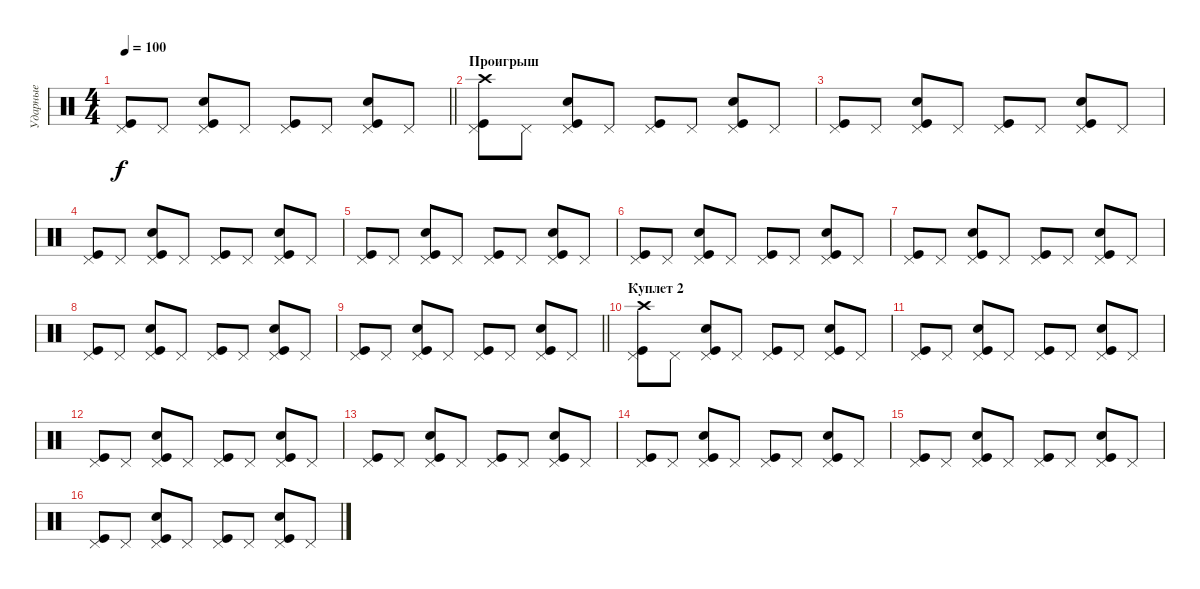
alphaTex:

\track ("Ударные" "Ударные") {instrument percussion}
\staff {score}
\articulation defaults
\ts (4 4)
\tempo 100
\clef neutral
\barLineRight lightlight
\ks c
("Pedal Hi-Hat (hit)" "Kick (hit)").8{dy f} "Pedal Hi-Hat (hit)".8 ("Pedal Hi-Hat (hit)" "Kick (hit)" "Snare (hit) 2").8 "Pedal Hi-Hat (hit)".8 ("Pedal Hi-Hat (hit)" "Kick (hit)").8 "Pedal Hi-Hat (hit)".8 ("Pedal Hi-Hat (hit)" "Kick (hit)" "Snare (hit) 2").8 "Pedal Hi-Hat (hit)".8 |
\section ("" "Проигрыш")
("Pedal Hi-Hat (hit)" "Kick (hit)" "Crash high (hit)").8 "Pedal Hi-Hat (hit)".8 ("Pedal Hi-Hat (hit)" "Kick (hit)" "Snare (hit) 2").8 "Pedal Hi-Hat (hit)".8 ("Pedal Hi-Hat (hit)" "Kick (hit)").8 "Pedal Hi-Hat (hit)".8 ("Pedal Hi-Hat (hit)" "Kick (hit)" "Snare (hit) 2").8 "Pedal Hi-Hat (hit)".8 |
("Pedal Hi-Hat (hit)" "Kick (hit)").8 "Pedal Hi-Hat (hit)".8 ("Pedal Hi-Hat (hit)" "Kick (hit)" "Snare (hit) 2").8 "Pedal Hi-Hat (hit)".8 ("Pedal Hi-Hat (hit)" "Kick (hit)").8 "Pedal Hi-Hat (hit)".8 ("Pedal Hi-Hat (hit)" "Kick (hit)" "Snare (hit) 2").8 "Pedal Hi-Hat (hit)".8 |
("Pedal Hi-Hat (hit)" "Kick (hit)").8 "Pedal Hi-Hat (hit)".8 ("Pedal Hi-Hat (hit)" "Kick (hit)" "Snare (hit) 2").8 "Pedal Hi-Hat (hit)".8 ("Pedal Hi-Hat (hit)" "Kick (hit)").8 "Pedal Hi-Hat (hit)".8 ("Pedal Hi-Hat (hit)" "Kick (hit)" "Snare (hit) 2").8 "Pedal Hi-Hat (hit)".8 |
("Pedal Hi-Hat (hit)" "Kick (hit)").8 "Pedal Hi-Hat (hit)".8 ("Pedal Hi-Hat (hit)" "Kick (hit)" "Snare (hit) 2").8 "Pedal Hi-Hat (hit)".8 ("Pedal Hi-Hat (hit)" "Kick (hit)").8 "Pedal Hi-Hat (hit)".8 ("Pedal Hi-Hat (hit)" "Kick (hit)" "Snare (hit) 2").8 "Pedal Hi-Hat (hit)".8 |
("Pedal Hi-Hat (hit)" "Kick (hit)").8 "Pedal Hi-Hat (hit)".8 ("Pedal Hi-Hat (hit)" "Kick (hit)" "Snare (hit) 2").8 "Pedal Hi-Hat (hit)".8 ("Pedal Hi-Hat (hit)" "Kick (hit)").8 "Pedal Hi-Hat (hit)".8 ("Pedal Hi-Hat (hit)" "Kick (hit)" "Snare (hit) 2").8 "Pedal Hi-Hat (hit)".8 |
("Pedal Hi-Hat (hit)" "Kick (hit)").8 "Pedal Hi-Hat (hit)".8 ("Pedal Hi-Hat (hit)" "Kick (hit)" "Snare (hit) 2").8 "Pedal Hi-Hat (hit)".8 ("Pedal Hi-Hat (hit)" "Kick (hit)").8 "Pedal Hi-Hat (hit)".8 ("Pedal Hi-Hat (hit)" "Kick (hit)" "Snare (hit) 2").8 "Pedal Hi-Hat (hit)".8 |
("Pedal Hi-Hat (hit)" "Kick (hit)").8 "Pedal Hi-Hat (hit)".8 ("Pedal Hi-Hat (hit)" "Kick (hit)" "Snare (hit) 2").8 "Pedal Hi-Hat (hit)".8 ("Pedal Hi-Hat (hit)" "Kick (hit)").8 "Pedal Hi-Hat (hit)".8 ("Pedal Hi-Hat (hit)" "Kick (hit)" "Snare (hit) 2").8 "Pedal Hi-Hat (hit)".8 |
\barLineRight lightlight
("Pedal Hi-Hat (hit)" "Kick (hit)").8 "Pedal Hi-Hat (hit)".8 ("Pedal Hi-Hat (hit)" "Kick (hit)" "Snare (hit) 2").8 "Pedal Hi-Hat (hit)".8 ("Pedal Hi-Hat (hit)" "Kick (hit)").8 "Pedal Hi-Hat (hit)".8 ("Pedal Hi-Hat (hit)" "Kick (hit)" "Snare (hit) 2").8 "Pedal Hi-Hat (hit)".8 |
\section ("" "Куплет 2")
("Pedal Hi-Hat (hit)" "Kick (hit)" "Crash high (hit)").8 "Pedal Hi-Hat (hit)".8 ("Pedal Hi-Hat (hit)" "Kick (hit)" "Snare (hit) 2").8 "Pedal Hi-Hat (hit)".8 ("Pedal Hi-Hat (hit)" "Kick (hit)").8 "Pedal Hi-Hat (hit)".8 ("Pedal Hi-Hat (hit)" "Kick (hit)" "Snare (hit) 2").8 "Pedal Hi-Hat (hit)".8 |
("Pedal Hi-Hat (hit)" "Kick (hit)").8 "Pedal Hi-Hat (hit)".8 ("Pedal Hi-Hat (hit)" "Kick (hit)" "Snare (hit) 2").8 "Pedal Hi-Hat (hit)".8 ("Pedal Hi-Hat (hit)" "Kick (hit)").8 "Pedal Hi-Hat (hit)".8 ("Pedal Hi-Hat (hit)" "Kick (hit)" "Snare (hit) 2").8 "Pedal Hi-Hat (hit)".8 |
("Pedal Hi-Hat (hit)" "Kick (hit)").8 "Pedal Hi-Hat (hit)".8 ("Pedal Hi-Hat (hit)" "Kick (hit)" "Snare (hit) 2").8 "Pedal Hi-Hat (hit)".8 ("Pedal Hi-Hat (hit)" "Kick (hit)").8 "Pedal Hi-Hat (hit)".8 ("Pedal Hi-Hat (hit)" "Kick (hit)" "Snare (hit) 2").8 "Pedal Hi-Hat (hit)".8 |
("Pedal Hi-Hat (hit)" "Kick (hit)").8 "Pedal Hi-Hat (hit)".8 ("Pedal Hi-Hat (hit)" "Kick (hit)" "Snare (hit) 2").8 "Pedal Hi-Hat (hit)".8 ("Pedal Hi-Hat (hit)" "Kick (hit)").8 "Pedal Hi-Hat (hit)".8 ("Pedal Hi-Hat (hit)" "Kick (hit)" "Snare (hit) 2").8 "Pedal Hi-Hat (hit)".8 |
("Pedal Hi-Hat (hit)" "Kick (hit)").8 "Pedal Hi-Hat (hit)".8 ("Pedal Hi-Hat (hit)" "Kick (hit)" "Snare (hit) 2").8 "Pedal Hi-Hat (hit)".8 ("Pedal Hi-Hat (hit)" "Kick (hit)").8 "Pedal Hi-Hat (hit)".8 ("Pedal Hi-Hat (hit)" "Kick (hit)" "Snare (hit) 2").8 "Pedal Hi-Hat (hit)".8 |
("Pedal Hi-Hat (hit)" "Kick (hit)").8 "Pedal Hi-Hat (hit)".8 ("Pedal Hi-Hat (hit)" "Kick (hit)" "Snare (hit) 2").8 "Pedal Hi-Hat (hit)".8 ("Pedal Hi-Hat (hit)" "Kick (hit)").8 "Pedal Hi-Hat (hit)".8 ("Pedal Hi-Hat (hit)" "Kick (hit)" "Snare (hit) 2").8 "Pedal Hi-Hat (hit)".8 |
("Pedal Hi-Hat (hit)" "Kick (hit)").8 "Pedal Hi-Hat (hit)".8 ("Pedal Hi-Hat (hit)" "Kick (hit)" "Snare (hit) 2").8 "Pedal Hi-Hat (hit)".8 ("Pedal Hi-Hat (hit)" "Kick (hit)").8 "Pedal Hi-Hat (hit)".8 ("Pedal Hi-Hat (hit)" "Kick (hit)" "Snare (hit) 2").8 "Pedal Hi-Hat (hit)".8
